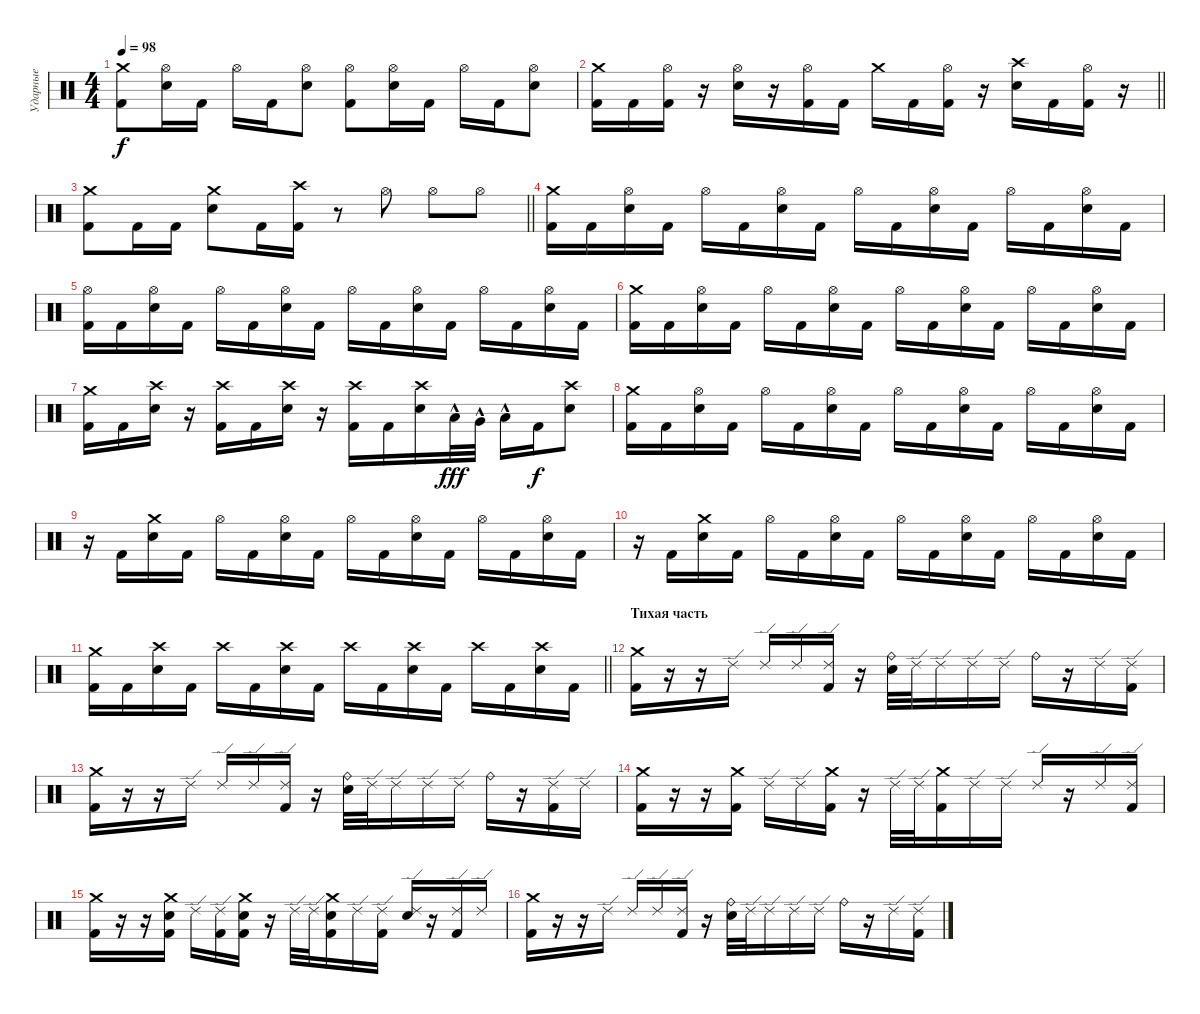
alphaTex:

\track ("Ударные" "Ударные") {instrument percussion}
\staff {score}
\articulation defaults
\ts (4 4)
\tempo 98
\clef neutral
\ks c
("Crash medium (hit)" "Kick (hit) 2").8{dy f} ("Hi-Hat (open)" "Electric Snare (hit)").16 "Kick (hit) 2".16 "Hi-Hat (open)".16 "Kick (hit) 2".16 ("Hi-Hat (open)" "Electric Snare (hit)").8 ("Hi-Hat (open)" "Kick (hit) 2").8 ("Hi-Hat (open)" "Electric Snare (hit)").16 "Kick (hit) 2".16 "Hi-Hat (open)".16 "Kick (hit) 2".16 ("Hi-Hat (open)" "Electric Snare (hit)").8 |
\barLineRight lightlight
("Crash medium (hit)" "Kick (hit) 2").16 "Kick (hit) 2".16 ("Hi-Hat (open)" "Kick (hit) 2").16 r.16 ("Hi-Hat (open)" "Electric Snare (hit)").16 r.16 ("Hi-Hat (open)" "Kick (hit) 2").16 "Kick (hit) 2".16 "Crash medium (hit)".16 "Kick (hit) 2".16 ("Hi-Hat (open)" "Kick (hit) 2").16 r.16 ("Crash high (hit)" "Electric Snare (hit)").16 "Kick (hit) 2".16 ("Hi-Hat (open)" "Kick (hit) 2").16 r.16 |
\barLineRight lightlight
("Crash medium (hit)" "Kick (hit) 2").8 "Kick (hit) 2".16 "Kick (hit) 2".16 ("Crash medium (hit)" "Electric Snare (hit)").8 "Kick (hit) 2".16 ("Crash high (hit)" "Kick (hit) 2").16 r.8 "Hi-Hat (open)".8 "Hi-Hat (open)".8 "Hi-Hat (open)".8 |
("Crash medium (hit)" "Kick (hit) 2").16 "Kick (hit) 2".16 ("Hi-Hat (open)" "Electric Snare (hit)").16 "Kick (hit) 2".16 "Hi-Hat (open)".16 "Kick (hit) 2".16 ("Hi-Hat (open)" "Electric Snare (hit)").16 "Kick (hit) 2".16 "Hi-Hat (open)".16 "Kick (hit) 2".16 ("Hi-Hat (open)" "Electric Snare (hit)").16 "Kick (hit) 2".16 "Hi-Hat (open)".16 "Kick (hit) 2".16 ("Hi-Hat (open)" "Electric Snare (hit)").16 "Kick (hit) 2".16 |
("Hi-Hat (open)" "Kick (hit) 2").16 "Kick (hit) 2".16 ("Hi-Hat (open)" "Electric Snare (hit)").16 "Kick (hit) 2".16 "Hi-Hat (open)".16 "Kick (hit) 2".16 ("Hi-Hat (open)" "Electric Snare (hit)").16 "Kick (hit) 2".16 "Hi-Hat (open)".16 "Kick (hit) 2".16 ("Hi-Hat (open)" "Electric Snare (hit)").16 "Kick (hit) 2".16 "Hi-Hat (open)".16 "Kick (hit) 2".16 ("Hi-Hat (open)" "Electric Snare (hit)").16 "Kick (hit) 2".16 |
("Crash medium (hit)" "Kick (hit) 2").16 "Kick (hit) 2".16 ("Hi-Hat (open)" "Electric Snare (hit)").16 "Kick (hit) 2".16 "Hi-Hat (open)".16 "Kick (hit) 2".16 ("Hi-Hat (open)" "Electric Snare (hit)").16 "Kick (hit) 2".16 "Hi-Hat (open)".16 "Kick (hit) 2".16 ("Hi-Hat (open)" "Electric Snare (hit)").16 "Kick (hit) 2".16 "Hi-Hat (open)".16 "Kick (hit) 2".16 ("Hi-Hat (open)" "Electric Snare (hit)").16 "Kick (hit) 2".16 |
("Crash medium (hit)" "Kick (hit) 2").16 "Kick (hit) 2".16 ("Crash high (hit)" "Electric Snare (hit)").16 r.16 ("Crash high (hit)" "Kick (hit) 2").16 "Kick (hit) 2".16 ("Crash high (hit)" "Electric Snare (hit)").16 r.16 ("Crash high (hit)" "Kick (hit) 2").16 "Kick (hit) 2".16 ("Crash high (hit)" "Electric Snare (hit)").16 "Low Floor Tom (hit)"{hac}.32{dy fff} "Very Low Tom (hit)"{hac}.32 "Low Floor Tom (hit)"{hac}.16 "Kick (hit) 2".16{dy f} ("Crash high (hit)" "Electric Snare (hit)").8 |
("Crash medium (hit)" "Kick (hit) 2").16 "Kick (hit) 2".16 ("Hi-Hat (open)" "Electric Snare (hit)").16 "Kick (hit) 2".16 "Hi-Hat (open)".16 "Kick (hit) 2".16 ("Hi-Hat (open)" "Electric Snare (hit)").16 "Kick (hit) 2".16 "Hi-Hat (open)".16 "Kick (hit) 2".16 ("Hi-Hat (open)" "Electric Snare (hit)").16 "Kick (hit) 2".16 "Hi-Hat (open)".16 "Kick (hit) 2".16 ("Hi-Hat (open)" "Electric Snare (hit)").16 "Kick (hit) 2".16 |
r.16 "Kick (hit) 2".16 ("Crash medium (hit)" "Electric Snare (hit)").16 "Kick (hit) 2".16 "Hi-Hat (open)".16 "Kick (hit) 2".16 ("Hi-Hat (open)" "Electric Snare (hit)").16 "Kick (hit) 2".16 "Hi-Hat (open)".16 "Kick (hit) 2".16 ("Hi-Hat (open)" "Electric Snare (hit)").16 "Kick (hit) 2".16 "Hi-Hat (open)".16 "Kick (hit) 2".16 ("Hi-Hat (open)" "Electric Snare (hit)").16 "Kick (hit) 2".16 |
r.16 "Kick (hit) 2".16 ("Crash medium (hit)" "Electric Snare (hit)").16 "Kick (hit) 2".16 "Hi-Hat (open)".16 "Kick (hit) 2".16 ("Hi-Hat (open)" "Electric Snare (hit)").16 "Kick (hit) 2".16 "Hi-Hat (open)".16 "Kick (hit) 2".16 ("Hi-Hat (open)" "Electric Snare (hit)").16 "Kick (hit) 2".16 "Hi-Hat (open)".16 "Kick (hit) 2".16 ("Hi-Hat (open)" "Electric Snare (hit)").16 "Kick (hit) 2".16 |
\barLineRight lightlight
("Crash medium (hit)" "Kick (hit) 2").16 "Kick (hit) 2".16 ("Crash high (hit)" "Electric Snare (hit)").16 "Kick (hit) 2".16 "Crash high (hit)".16 "Kick (hit) 2".16 ("Crash high (hit)" "Electric Snare (hit)").16 "Kick (hit) 2".16 "Crash high (hit)".16 "Kick (hit) 2".16 ("Crash high (hit)" "Electric Snare (hit)").16 "Kick (hit) 2".16 "Crash high (hit)".16 "Kick (hit) 2".16 ("Crash high (hit)" "Electric Snare (hit)").16 "Kick (hit) 2".16 |
\section ("" "Тихая часть")
("Crash medium (hit)" "Kick (hit) 2").16 r.16 r.16 "Ride (edge) 2".16 "Ride (edge) 2".16 "Ride (edge) 2".16 ("Ride (edge) 2" "Kick (hit) 2").16 r.16 ("Ride (bell)" "Electric Snare (hit)").32 "Ride (edge) 2".32 "Ride (edge) 2".16 "Ride (edge) 2".16 "Ride (edge) 2".16 "Ride (bell)".16 r.16 "Ride (edge) 2".16 ("Ride (edge) 2" "Kick (hit) 2").16 |
("Crash medium (hit)" "Kick (hit) 2").16 r.16 r.16 "Ride (edge) 2".16 "Ride (edge) 2".16 "Ride (edge) 2".16 ("Ride (edge) 2" "Kick (hit) 2").16 r.16 ("Ride (bell)" "Electric Snare (hit)").32 "Ride (edge) 2".32 "Ride (edge) 2".16 "Ride (edge) 2".16 "Ride (edge) 2".16 "Ride (bell)".16 r.16 ("Ride (edge) 2" "Kick (hit) 2").16 "Ride (edge) 2".16 |
("Crash medium (hit)" "Kick (hit) 2").16 r.16 r.16 ("Crash medium (hit)" "Kick (hit) 2").16 "Ride (edge) 2".16 "Ride (edge) 2".16 ("Crash medium (hit)" "Kick (hit) 2").16 r.16 "Ride (edge) 2".32 "Ride (edge) 2".32 ("Crash medium (hit)" "Kick (hit) 2").16 "Ride (edge) 2".16 "Ride (edge) 2".16 "Ride (edge) 2".16 r.16 "Ride (edge) 2".16 ("Ride (edge) 2" "Kick (hit) 2").16 |
("Crash medium (hit)" "Kick (hit) 2").16 r.16 r.16 ("Crash medium (hit)" "Electric Snare (hit)" "Kick (hit) 2").16 "Ride (edge) 2".16 ("Ride (edge) 2" "Kick (hit) 2").16 ("Crash medium (hit)" "Electric Snare (hit)" "Kick (hit) 2").16 r.16 "Ride (edge) 2".32 "Ride (edge) 2".32 ("Crash medium (hit)" "Electric Snare (hit)" "Kick (hit) 2").16 "Ride (edge) 2".16 ("Ride (edge) 2" "Kick (hit) 2").16 ("Ride (edge) 2" "Electric Snare (hit)").16 r.16 ("Ride (edge) 2" "Kick (hit) 2").16 "Ride (edge) 2".16 |
("Crash medium (hit)" "Kick (hit) 2").16 r.16 r.16 "Ride (edge) 2".16 "Ride (edge) 2".16 "Ride (edge) 2".16 ("Ride (edge) 2" "Kick (hit) 2").16 r.16 ("Ride (bell)" "Electric Snare (hit)").32 "Ride (edge) 2".32 "Ride (edge) 2".16 "Ride (edge) 2".16 "Ride (edge) 2".16 "Ride (bell)".16 r.16 "Ride (edge) 2".16 ("Ride (edge) 2" "Kick (hit) 2").16
